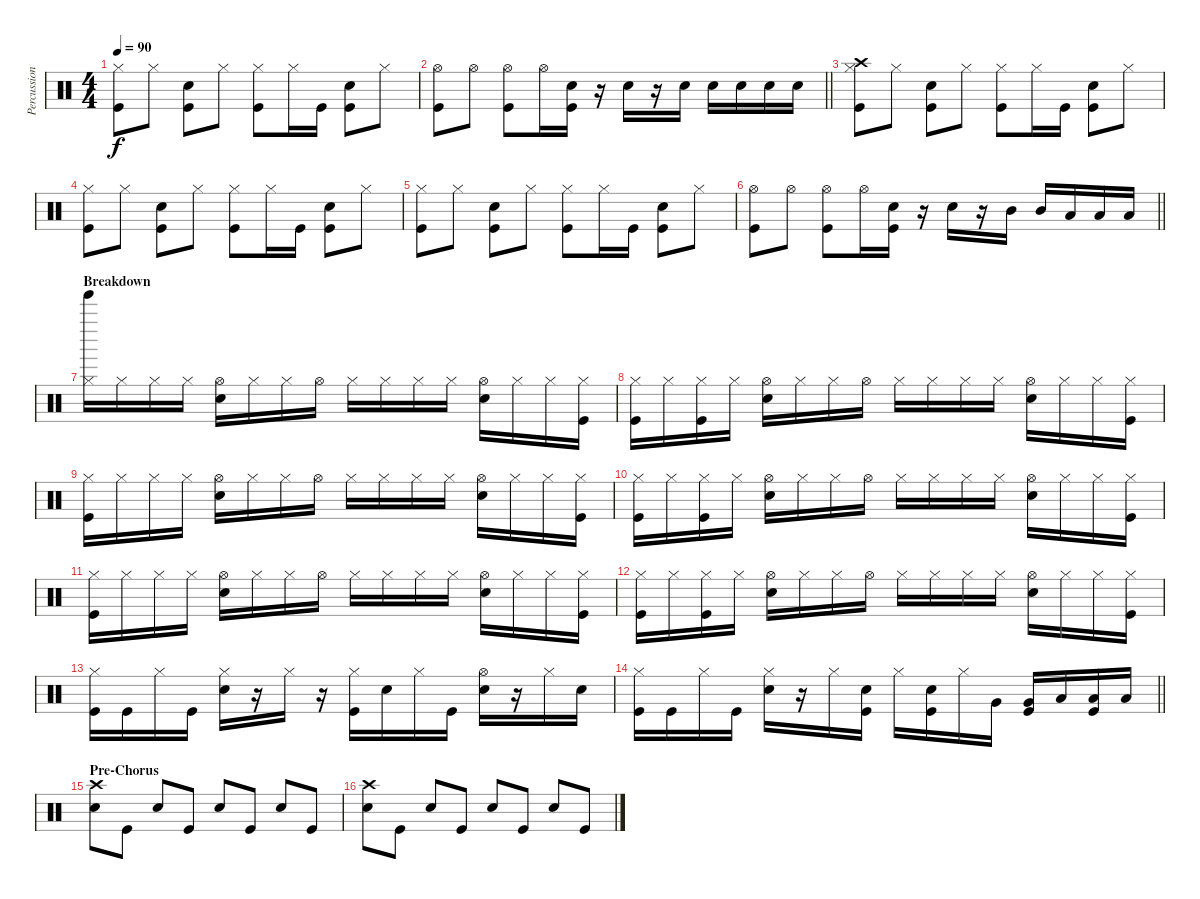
\track ("Percussion" "Percussion") {instrument percussion}
\staff {score}
\articulation defaults
\ts (4 4)
\tempo 90
\clef neutral
\ks c
("Hi-Hat (closed)" "Kick (hit)").8{dy f} "Hi-Hat (closed)".8 ("Snare (hit) 2" "Kick (hit)").8 "Hi-Hat (closed)".8 ("Hi-Hat (closed)" "Kick (hit)").8 "Hi-Hat (closed)".16 "Kick (hit)".16 ("Snare (hit) 2" "Kick (hit)").8 "Hi-Hat (closed)".8 |
\barLineRight lightlight
("Hi-Hat (open)" "Kick (hit)").8 "Hi-Hat (open)".8 ("Hi-Hat (open)" "Kick (hit)").8 "Hi-Hat (open)".16 ("Snare (hit) 2" "Kick (hit)").16 r.16 "Snare (hit) 2".16 r.16 "Snare (hit) 2".16 "Snare (hit) 2".16 "Snare (hit) 2".16 "Snare (hit) 2".16 "Snare (hit) 2".16 |
("Crash high (hit)" "Hi-Hat (closed)" "Kick (hit)").8 "Hi-Hat (closed)".8 ("Snare (hit) 2" "Kick (hit)").8 "Hi-Hat (closed)".8 ("Hi-Hat (closed)" "Kick (hit)").8 "Hi-Hat (closed)".16 "Kick (hit)".16 ("Snare (hit) 2" "Kick (hit)").8 "Hi-Hat (closed)".8 |
("Hi-Hat (closed)" "Kick (hit)").8 "Hi-Hat (closed)".8 ("Snare (hit) 2" "Kick (hit)").8 "Hi-Hat (closed)".8 ("Hi-Hat (closed)" "Kick (hit)").8 "Hi-Hat (closed)".16 "Kick (hit)".16 ("Snare (hit) 2" "Kick (hit)").8 "Hi-Hat (closed)".8 |
("Hi-Hat (closed)" "Kick (hit)").8 "Hi-Hat (closed)".8 ("Snare (hit) 2" "Kick (hit)").8 "Hi-Hat (closed)".8 ("Hi-Hat (closed)" "Kick (hit)").8 "Hi-Hat (closed)".16 "Kick (hit)".16 ("Snare (hit) 2" "Kick (hit)").8 "Hi-Hat (closed)".8 |
\barLineRight lightlight
("Hi-Hat (open)" "Kick (hit)").8 "Hi-Hat (open)".8 ("Hi-Hat (open)" "Kick (hit)").8 "Hi-Hat (open)".16 ("Snare (hit) 2" "Kick (hit)").16 r.16 "Snare (hit) 2".16 r.16 "Mid Tom (hit)".16 "Mid Tom (hit)".16 "Low Tom (hit)".16 "Low Tom (hit)".16 "Low Floor Tom (hit)".16 |
\section ("" "Breakdown")
("Tinkle Bell (hit)" "Hi-Hat (closed)").16 "Hi-Hat (closed)".16 "Hi-Hat (closed)".16 "Hi-Hat (closed)".16 ("Hand Clap (hit)" "Hi-Hat (open)").16 "Hi-Hat (closed)".16 "Hi-Hat (closed)".16 "Hi-Hat (open)".16 "Hi-Hat (closed)".16 "Hi-Hat (closed)".16 "Hi-Hat (closed)".16 "Hi-Hat (closed)".16 ("Hand Clap (hit)" "Hi-Hat (open)").16 "Hi-Hat (closed)".16 "Hi-Hat (closed)".16 ("Hi-Hat (closed)" "Kick (hit)").16 |
("Hi-Hat (closed)" "Kick (hit)").16 "Hi-Hat (closed)".16 ("Hi-Hat (closed)" "Kick (hit)").16 "Hi-Hat (closed)".16 ("Hand Clap (hit)" "Hi-Hat (open)").16 "Hi-Hat (closed)".16 "Hi-Hat (closed)".16 "Hi-Hat (open)".16 "Hi-Hat (closed)".16 "Hi-Hat (closed)".16 "Hi-Hat (closed)".16 "Hi-Hat (closed)".16 ("Hand Clap (hit)" "Hi-Hat (open)").16 "Hi-Hat (closed)".16 "Hi-Hat (closed)".16 ("Hi-Hat (closed)" "Kick (hit)").16 |
("Hi-Hat (closed)" "Kick (hit)").16 "Hi-Hat (closed)".16 "Hi-Hat (closed)".16 "Hi-Hat (closed)".16 ("Hand Clap (hit)" "Hi-Hat (open)").16 "Hi-Hat (closed)".16 "Hi-Hat (closed)".16 "Hi-Hat (open)".16 "Hi-Hat (closed)".16 "Hi-Hat (closed)".16 "Hi-Hat (closed)".16 "Hi-Hat (closed)".16 ("Hand Clap (hit)" "Hi-Hat (open)").16 "Hi-Hat (closed)".16 "Hi-Hat (closed)".16 ("Hi-Hat (closed)" "Kick (hit)").16 |
("Hi-Hat (closed)" "Kick (hit)").16 "Hi-Hat (closed)".16 ("Hi-Hat (closed)" "Kick (hit)").16 "Hi-Hat (closed)".16 ("Hand Clap (hit)" "Hi-Hat (open)").16 "Hi-Hat (closed)".16 "Hi-Hat (closed)".16 "Hi-Hat (open)".16 "Hi-Hat (closed)".16 "Hi-Hat (closed)".16 "Hi-Hat (closed)".16 "Hi-Hat (closed)".16 ("Hand Clap (hit)" "Hi-Hat (open)").16 "Hi-Hat (closed)".16 "Hi-Hat (closed)".16 ("Hi-Hat (closed)" "Kick (hit)").16 |
("Hi-Hat (closed)" "Kick (hit)").16 "Hi-Hat (closed)".16 "Hi-Hat (closed)".16 "Hi-Hat (closed)".16 ("Hand Clap (hit)" "Hi-Hat (open)").16 "Hi-Hat (closed)".16 "Hi-Hat (closed)".16 "Hi-Hat (open)".16 "Hi-Hat (closed)".16 "Hi-Hat (closed)".16 "Hi-Hat (closed)".16 "Hi-Hat (closed)".16 ("Hand Clap (hit)" "Hi-Hat (open)").16 "Hi-Hat (closed)".16 "Hi-Hat (closed)".16 ("Hi-Hat (closed)" "Kick (hit)").16 |
("Hi-Hat (closed)" "Kick (hit)").16 "Hi-Hat (closed)".16 ("Hi-Hat (closed)" "Kick (hit)").16 "Hi-Hat (closed)".16 ("Hand Clap (hit)" "Hi-Hat (open)").16 "Hi-Hat (closed)".16 "Hi-Hat (closed)".16 "Hi-Hat (open)".16 "Hi-Hat (closed)".16 "Hi-Hat (closed)".16 "Hi-Hat (closed)".16 "Hi-Hat (closed)".16 ("Hand Clap (hit)" "Hi-Hat (open)").16 "Hi-Hat (closed)".16 "Hi-Hat (closed)".16 ("Hi-Hat (closed)" "Kick (hit)").16 |
("Hi-Hat (closed)" "Kick (hit)").16 "Kick (hit)".16 "Hi-Hat (closed)".16 "Kick (hit)".16 ("Hi-Hat (closed)" "Snare (hit) 2").16 r.16 "Hi-Hat (closed)".16 r.16 ("Hi-Hat (closed)" "Kick (hit)").16 "Snare (hit) 2".16 "Hi-Hat (closed)".16 "Kick (hit)".16 ("Hi-Hat (open)" "Snare (hit) 2").16 r.16 "Hi-Hat (closed)".16 "Snare (hit) 2".16 |
\barLineRight lightlight
("Hi-Hat (closed)" "Kick (hit)").16 "Kick (hit)".16 "Hi-Hat (closed)".16 "Kick (hit)".16 ("Hi-Hat (closed)" "Snare (hit) 2").16 r.16 "Hi-Hat (closed)".16 ("Snare (hit) 2" "Kick (hit)").16 "Hi-Hat (closed)".16 ("Snare (hit) 2" "Kick (hit)").16 "Hi-Hat (closed)".16 "Very Low Tom (hit)".16 ("Very Low Tom (hit)" "Kick (hit)").16 "Low Floor Tom (hit)".16 ("Low Floor Tom (hit)" "Kick (hit)").16 "Low Floor Tom (hit)".16 |
\section ("" "Pre-Chorus")
("Crash high (hit)" "Snare (hit) 2").8 "Kick (hit)".8 "Snare (hit) 2".8 "Kick (hit)".8 "Snare (hit) 2".8 "Kick (hit)".8 "Snare (hit) 2".8 "Kick (hit)".8 |
("Crash high (hit)" "Snare (hit) 2").8 "Kick (hit)".8 "Snare (hit) 2".8 "Kick (hit)".8 "Snare (hit) 2".8 "Kick (hit)".8 "Snare (hit) 2".8 "Kick (hit)".8
